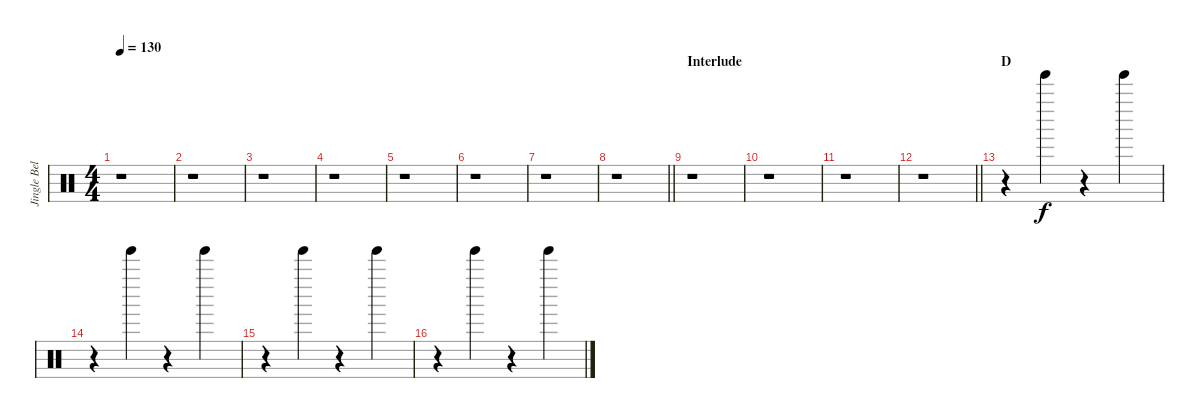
\track ("Jingle Bell" "Jingle Bel") {instrument percussion}
\staff {score}
\articulation defaults
\ts (4 4)
\tempo 130
\clef neutral
\ks c
r.1{dy f} |
r.1 |
r.1 |
r.1 |
r.1 |
r.1 |
r.1 |
\barLineRight lightlight
r.1 |
\section ("" "Interlude")
r.1 |
r.1 |
r.1 |
\barLineRight lightlight
r.1 |
\section ("" "D")
r.4 "Tinkle Bell (hit)".4 r.4 "Tinkle Bell (hit)".4 |
r.4 "Tinkle Bell (hit)".4 r.4 "Tinkle Bell (hit)".4 |
r.4 "Tinkle Bell (hit)".4 r.4 "Tinkle Bell (hit)".4 |
r.4 "Tinkle Bell (hit)".4 r.4 "Tinkle Bell (hit)".4
